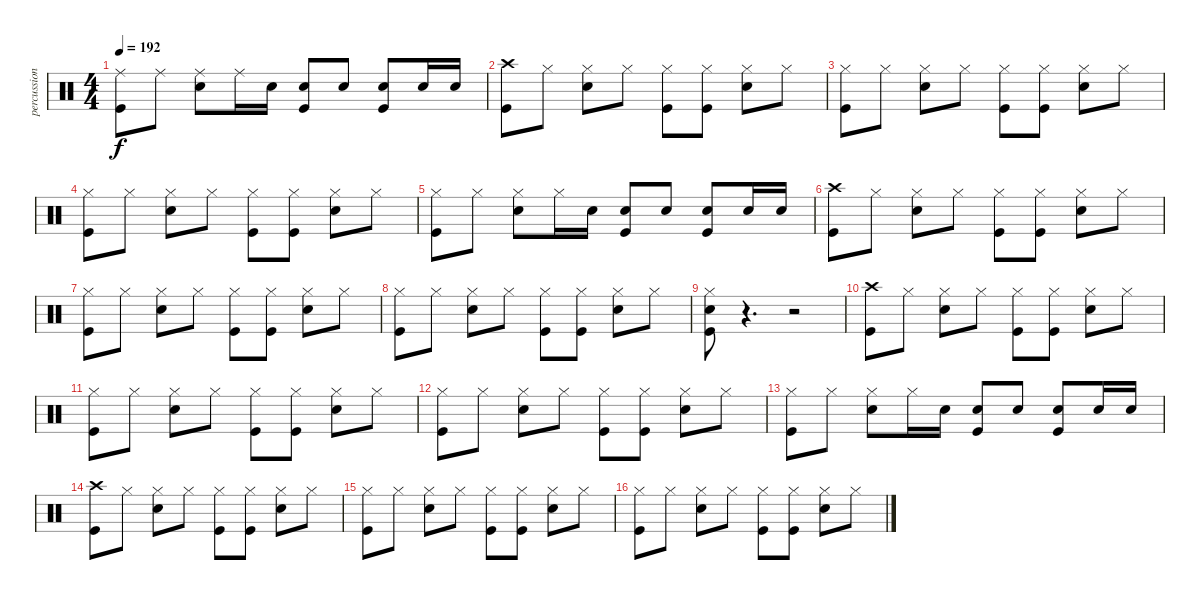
\track ("percussion" "percussion") {instrument percussion}
\staff {score}
\articulation defaults
\ts (4 4)
\tempo 192
\clef neutral
\ks c
("Ride (middle)" "Kick (hit)").8{dy f} "Ride (middle)".8 ("Ride (middle)" "Snare (hit) 2").8 "Ride (middle)".16 "Snare (hit) 2".16 ("Snare (hit) 2" "Kick (hit)").8 "Snare (hit) 2".8 ("Snare (hit) 2" "Kick (hit)").8 "Snare (hit) 2".16 "Snare (hit) 2".16 |
("Crash high (hit)" "Kick (hit)").8 "Hi-Hat (closed)".8 ("Hi-Hat (closed)" "Snare (hit) 2").8 "Hi-Hat (closed)".8 ("Hi-Hat (closed)" "Kick (hit)").8 ("Hi-Hat (closed)" "Kick (hit)").8 ("Hi-Hat (closed)" "Snare (hit) 2").8 "Hi-Hat (closed)".8 |
("Hi-Hat (closed)" "Kick (hit)").8 "Hi-Hat (closed)".8 ("Hi-Hat (closed)" "Snare (hit) 2").8 "Hi-Hat (closed)".8 ("Hi-Hat (closed)" "Kick (hit)").8 ("Hi-Hat (closed)" "Kick (hit)").8 ("Hi-Hat (closed)" "Snare (hit) 2").8 "Hi-Hat (closed)".8 |
("Hi-Hat (closed)" "Kick (hit)").8 "Hi-Hat (closed)".8 ("Hi-Hat (closed)" "Snare (hit) 2").8 "Hi-Hat (closed)".8 ("Hi-Hat (closed)" "Kick (hit)").8 ("Hi-Hat (closed)" "Kick (hit)").8 ("Hi-Hat (closed)" "Snare (hit) 2").8 "Hi-Hat (closed)".8 |
("Hi-Hat (closed)" "Kick (hit)").8 "Hi-Hat (closed)".8 ("Hi-Hat (closed)" "Snare (hit) 2").8 "Hi-Hat (closed)".16 "Snare (hit) 2".16 ("Snare (hit) 2" "Kick (hit)").8 "Snare (hit) 2".8 ("Snare (hit) 2" "Kick (hit)").8 "Snare (hit) 2".16 "Snare (hit) 2".16 |
("Crash high (hit)" "Kick (hit)").8 "Hi-Hat (closed)".8 ("Hi-Hat (closed)" "Snare (hit) 2").8 "Hi-Hat (closed)".8 ("Hi-Hat (closed)" "Kick (hit)").8 ("Hi-Hat (closed)" "Kick (hit)").8 ("Hi-Hat (closed)" "Snare (hit) 2").8 "Hi-Hat (closed)".8 |
("Hi-Hat (closed)" "Kick (hit)").8 "Hi-Hat (closed)".8 ("Hi-Hat (closed)" "Snare (hit) 2").8 "Hi-Hat (closed)".8 ("Hi-Hat (closed)" "Kick (hit)").8 ("Hi-Hat (closed)" "Kick (hit)").8 ("Hi-Hat (closed)" "Snare (hit) 2").8 "Hi-Hat (closed)".8 |
("Hi-Hat (closed)" "Kick (hit)").8 "Hi-Hat (closed)".8 ("Hi-Hat (closed)" "Snare (hit) 2").8 "Hi-Hat (closed)".8 ("Hi-Hat (closed)" "Kick (hit)").8 ("Hi-Hat (closed)" "Kick (hit)").8 ("Hi-Hat (closed)" "Snare (hit) 2").8 "Hi-Hat (closed)".8 |
("Kick (hit)" "Hi-Hat (closed)" "Snare (hit) 2").8 r.4{d} r.2 |
("Crash high (hit)" "Kick (hit)").8 "Hi-Hat (closed)".8 ("Hi-Hat (closed)" "Snare (hit) 2").8 "Hi-Hat (closed)".8 ("Hi-Hat (closed)" "Kick (hit)").8 ("Hi-Hat (closed)" "Kick (hit)").8 ("Hi-Hat (closed)" "Snare (hit) 2").8 "Hi-Hat (closed)".8 |
("Hi-Hat (closed)" "Kick (hit)").8 "Hi-Hat (closed)".8 ("Hi-Hat (closed)" "Snare (hit) 2").8 "Hi-Hat (closed)".8 ("Hi-Hat (closed)" "Kick (hit)").8 ("Hi-Hat (closed)" "Kick (hit)").8 ("Hi-Hat (closed)" "Snare (hit) 2").8 "Hi-Hat (closed)".8 |
("Hi-Hat (closed)" "Kick (hit)").8 "Hi-Hat (closed)".8 ("Hi-Hat (closed)" "Snare (hit) 2").8 "Hi-Hat (closed)".8 ("Hi-Hat (closed)" "Kick (hit)").8 ("Hi-Hat (closed)" "Kick (hit)").8 ("Hi-Hat (closed)" "Snare (hit) 2").8 "Hi-Hat (closed)".8 |
("Hi-Hat (closed)" "Kick (hit)").8 "Hi-Hat (closed)".8 ("Hi-Hat (closed)" "Snare (hit) 2").8 "Hi-Hat (closed)".16 "Snare (hit) 2".16 ("Snare (hit) 2" "Kick (hit)").8 "Snare (hit) 2".8 ("Snare (hit) 2" "Kick (hit)").8 "Snare (hit) 2".16 "Snare (hit) 2".16 |
("Crash high (hit)" "Kick (hit)").8 "Hi-Hat (closed)".8 ("Snare (hit) 2" "Hi-Hat (closed)").8 "Hi-Hat (closed)".8 ("Hi-Hat (closed)" "Kick (hit)").8 ("Kick (hit)" "Hi-Hat (closed)").8 ("Snare (hit) 2" "Hi-Hat (closed)").8 "Hi-Hat (closed)".8 |
("Hi-Hat (closed)" "Kick (hit)").8 "Hi-Hat (closed)".8 ("Snare (hit) 2" "Hi-Hat (closed)").8 "Hi-Hat (closed)".8 ("Hi-Hat (closed)" "Kick (hit)").8 ("Kick (hit)" "Hi-Hat (closed)").8 ("Snare (hit) 2" "Hi-Hat (closed)").8 "Hi-Hat (closed)".8 |
("Hi-Hat (closed)" "Kick (hit)").8 "Hi-Hat (closed)".8 ("Snare (hit) 2" "Hi-Hat (closed)").8 "Hi-Hat (closed)".8 ("Hi-Hat (closed)" "Kick (hit)").8 ("Kick (hit)" "Hi-Hat (closed)").8 ("Snare (hit) 2" "Hi-Hat (closed)").8 "Hi-Hat (closed)".8
